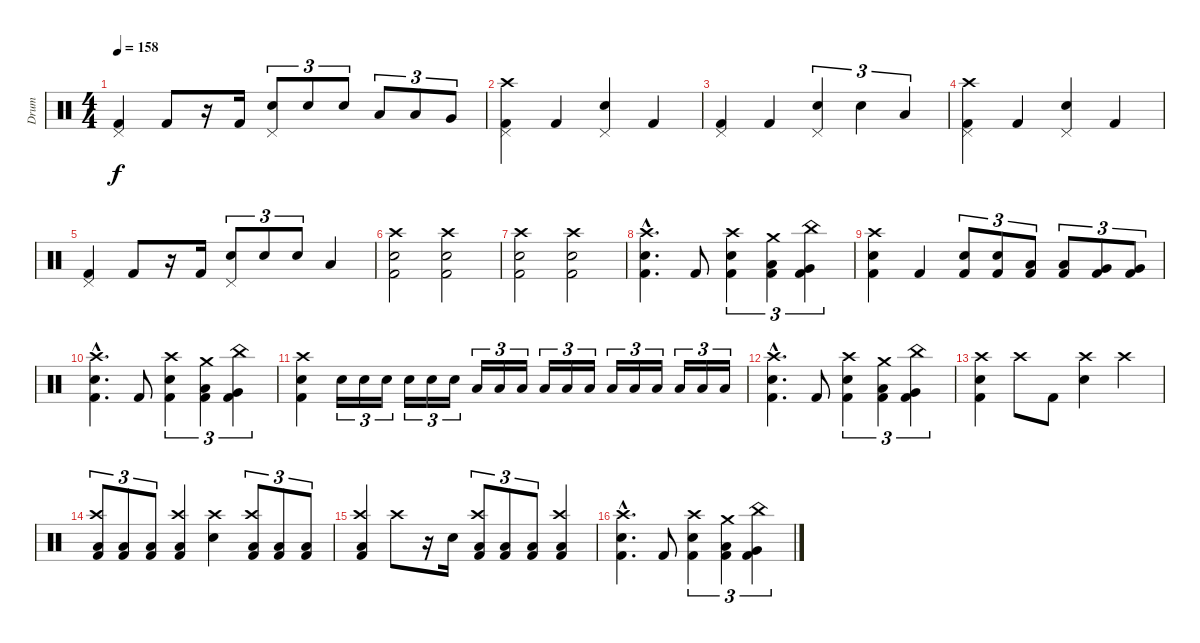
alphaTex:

\track ("Drum" "Drum") {instrument percussion}
\staff {score}
\articulation defaults
\ts (4 4)
\tempo 158
\clef neutral
\ks c
("Pedal Hi-Hat (hit)" "Kick (hit) 2").4{dy f} "Kick (hit) 2".8 r.16 "Kick (hit) 2".16 ("Electric Snare (hit)" "Pedal Hi-Hat (hit)").8{tu (3 2)} "Electric Snare (hit)".8{tu (3 2)} "Electric Snare (hit)".8{tu (3 2)} "Low Tom (hit)".8{tu (3 2)} "Low Tom (hit)".8{tu (3 2)} "Very Low Tom (hit)".8{tu (3 2)} |
("Crash high (hit)" "Pedal Hi-Hat (hit)" "Kick (hit) 2").4 "Kick (hit) 2".4 ("Electric Snare (hit)" "Pedal Hi-Hat (hit)").4 "Kick (hit) 2".4 |
("Pedal Hi-Hat (hit)" "Kick (hit) 2").4 "Kick (hit) 2".4 ("Electric Snare (hit)" "Pedal Hi-Hat (hit)").4{tu (3 2)} "Electric Snare (hit)".4{tu (3 2)} "Low Tom (hit)".4{tu (3 2)} |
("Crash high (hit)" "Pedal Hi-Hat (hit)" "Kick (hit) 2").4 "Kick (hit) 2".4 ("Electric Snare (hit)" "Pedal Hi-Hat (hit)").4 "Kick (hit) 2".4 |
("Pedal Hi-Hat (hit)" "Kick (hit) 2").4 "Kick (hit) 2".8 r.16 "Kick (hit) 2".16 ("Electric Snare (hit)" "Pedal Hi-Hat (hit)").8{tu (3 2)} "Electric Snare (hit)".8{tu (3 2)} "Electric Snare (hit)".8{tu (3 2)} "Low Tom (hit)".4 |
("Crash high (hit)" "Electric Snare (hit)" "Kick (hit) 2").2 ("Crash high (hit)" "Electric Snare (hit)" "Kick (hit) 2").2 |
("Crash high (hit)" "Electric Snare (hit)" "Kick (hit) 2").2 ("Crash high (hit)" "Electric Snare (hit)" "Kick (hit) 2").2 |
("Crash high (hit)"{hac} "Electric Snare (hit)"{hac} "Kick (hit) 2"{hac}).4{d} "Kick (hit) 2".8 ("Crash high (hit)" "Electric Snare (hit)" "Kick (hit) 2").4{tu (3 2)} ("Crash medium (hit)" "Low Tom (hit)" "Kick (hit) 2").4{tu (3 2)} ("China (hit)" "Very Low Tom (hit)" "Kick (hit) 2").4{tu (3 2)} |
("Crash high (hit)" "Electric Snare (hit)" "Kick (hit) 2").4 "Kick (hit) 2".4 ("Electric Snare (hit)" "Kick (hit) 2").8{tu (3 2)} ("Electric Snare (hit)" "Kick (hit) 2").8{tu (3 2)} ("Low Tom (hit)" "Kick (hit) 2").8{tu (3 2)} ("Low Tom (hit)" "Kick (hit) 2").8{tu (3 2)} ("Very Low Tom (hit)" "Kick (hit) 2").8{tu (3 2)} ("Very Low Tom (hit)" "Kick (hit) 2").8{tu (3 2)} |
("Crash high (hit)"{hac} "Electric Snare (hit)"{hac} "Kick (hit) 2"{hac}).4{d} "Kick (hit) 2".8 ("Crash high (hit)" "Electric Snare (hit)" "Kick (hit) 2").4{tu (3 2)} ("Crash medium (hit)" "Low Tom (hit)" "Kick (hit) 2").4{tu (3 2)} ("China (hit)" "Very Low Tom (hit)" "Kick (hit) 2").4{tu (3 2)} |
("Crash high (hit)" "Electric Snare (hit)" "Kick (hit) 2").4 "Electric Snare (hit)".16{tu (3 2)} "Electric Snare (hit)".16{tu (3 2)} "Electric Snare (hit)".16{tu (3 2)} "Electric Snare (hit)".16{tu (3 2)} "Electric Snare (hit)".16{tu (3 2)} "Electric Snare (hit)".16{tu (3 2)} "Low Tom (hit)".16{tu (3 2)} "Low Tom (hit)".16{tu (3 2)} "Low Tom (hit)".16{tu (3 2)} "Low Tom (hit)".16{tu (3 2)} "Low Tom (hit)".16{tu (3 2)} "Low Tom (hit)".16{tu (3 2)} "Low Floor Tom (hit)".16{tu (3 2)} "Low Floor Tom (hit)".16{tu (3 2)} "Low Floor Tom (hit)".16{tu (3 2)} "Low Floor Tom (hit)".16{tu (3 2)} "Low Floor Tom (hit)".16{tu (3 2)} "Low Floor Tom (hit)".16{tu (3 2)} |
("Crash high (hit)"{hac} "Electric Snare (hit)"{hac} "Kick (hit) 2"{hac}).4{d} "Kick (hit) 2".8 ("Crash high (hit)" "Electric Snare (hit)" "Kick (hit) 2").4{tu (3 2)} ("Crash medium (hit)" "Low Tom (hit)" "Kick (hit) 2").4{tu (3 2)} ("China (hit)" "Very Low Tom (hit)" "Kick (hit) 2").4{tu (3 2)} |
("Crash high (hit)" "Electric Snare (hit)" "Kick (hit) 2").4 "Crash high (hit)".8 "Kick (hit) 2".8 ("Crash high (hit)" "Electric Snare (hit)").4 "Crash high (hit)".4 |
("Crash high (hit)" "Low Floor Tom (hit)" "Kick (hit) 2").8{tu (3 2)} ("Low Floor Tom (hit)" "Kick (hit) 2").8{tu (3 2)} ("Low Floor Tom (hit)" "Kick (hit) 2").8{tu (3 2)} ("Crash high (hit)" "Low Floor Tom (hit)" "Kick (hit) 2").4 ("Crash high (hit)" "Electric Snare (hit)").4 ("Crash high (hit)" "Low Floor Tom (hit)" "Kick (hit) 2").8{tu (3 2)} ("Low Floor Tom (hit)" "Kick (hit) 2").8{tu (3 2)} ("Low Floor Tom (hit)" "Kick (hit) 2").8{tu (3 2)} |
("Crash high (hit)" "Low Floor Tom (hit)" "Kick (hit) 2").4 "Crash high (hit)".8 r.16 "Electric Snare (hit)".16 ("Crash high (hit)" "Low Floor Tom (hit)" "Kick (hit) 2").8{tu (3 2)} ("Low Floor Tom (hit)" "Kick (hit) 2").8{tu (3 2)} ("Low Floor Tom (hit)" "Kick (hit) 2").8{tu (3 2)} ("Crash high (hit)" "Low Floor Tom (hit)" "Kick (hit) 2").4 |
("Crash high (hit)"{hac} "Electric Snare (hit)"{hac} "Kick (hit) 2"{hac}).4{d} "Kick (hit) 2".8 ("Crash high (hit)" "Electric Snare (hit)" "Kick (hit) 2").4{tu (3 2)} ("Crash medium (hit)" "Low Tom (hit)" "Kick (hit) 2").4{tu (3 2)} ("China (hit)" "Very Low Tom (hit)" "Kick (hit) 2").4{tu (3 2)}
